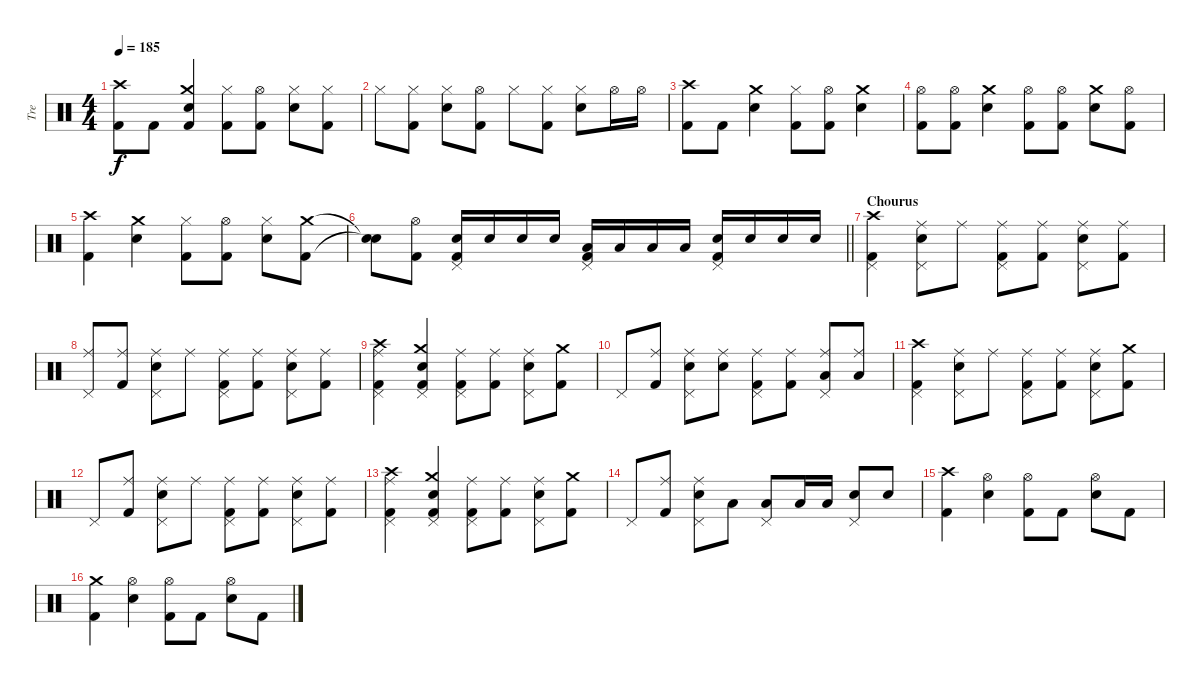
\track ("Tre" "Tre") {instrument percussion}
\staff {score}
\articulation defaults
\ts (4 4)
\tempo 185
\clef neutral
\ks c
("Crash high (hit)" "Kick (hit) 2").8{dy f} "Kick (hit) 2".8 ("Crash medium (hit)" "Snare (hit) 2" "Kick (hit) 2").4 ("Hi-Hat (closed)" "Kick (hit) 2").8 ("Hi-Hat (open)" "Kick (hit) 2").8 ("Hi-Hat (closed)" "Snare (hit) 2").8 ("Hi-Hat (closed)" "Kick (hit) 2").8 |
"Hi-Hat (closed)".8 ("Hi-Hat (closed)" "Kick (hit) 2").8 ("Hi-Hat (closed)" "Snare (hit) 2").8 ("Hi-Hat (open)" "Kick (hit) 2").8 "Hi-Hat (closed)".8 ("Hi-Hat (closed)" "Kick (hit) 2").8 ("Hi-Hat (closed)" "Snare (hit) 2").8 "Hi-Hat (open)".16 "Hi-Hat (open)".16 |
("Crash high (hit)" "Kick (hit) 2").8 "Kick (hit) 2".8 ("Crash medium (hit)" "Snare (hit) 2").4 ("Hi-Hat (closed)" "Kick (hit) 2").8 ("Hi-Hat (open)" "Kick (hit) 2").8 ("Crash medium (hit)" "Snare (hit) 2").4 |
("Hi-Hat (open)" "Kick (hit) 2").8 ("Hi-Hat (open)" "Kick (hit) 2").8 ("Crash medium (hit)" "Snare (hit) 2").4 ("Hi-Hat (open)" "Kick (hit) 2").8 ("Hi-Hat (open)" "Kick (hit) 2").8 ("Crash medium (hit)" "Snare (hit) 2").8 ("Hi-Hat (open)" "Kick (hit) 2").8 |
("Crash high (hit)" "Kick (hit) 2").4 ("Crash medium (hit)" "Snare (hit) 2").4 ("Hi-Hat (closed)" "Kick (hit) 2").8 ("Hi-Hat (open)" "Kick (hit) 2").8 ("Hi-Hat (closed)" "Snare (hit) 2").8 ("Crash medium (hit)" "Kick (hit) 2").8 |
\barLineRight lightlight
("Snare (hit)"{t} "Snare (hit)"{t}).8 ("Hi-Hat (open)" "Kick (hit) 2").8 ("Snare (hit) 2" "Pedal Hi-Hat (hit)" "Kick (hit) 2").16 "Snare (hit) 2".16 "Snare (hit) 2".16 "Snare (hit) 2".16 ("Low Tom (hit)" "Pedal Hi-Hat (hit)" "Kick (hit) 2").16 "Low Tom (hit)".16 "Low Tom (hit)".16 "Low Tom (hit)".16 ("Snare (hit) 2" "Pedal Hi-Hat (hit)" "Kick (hit) 2").16 "Snare (hit) 2".16 "Snare (hit) 2".16 "Snare (hit) 2".16 |
\section ("" "Chourus")
("Crash high (hit)" "Pedal Hi-Hat (hit)" "Kick (hit) 2").4 ("Ride (middle)" "Snare (hit) 2" "Pedal Hi-Hat (hit)").8 "Ride (middle)".8 ("Ride (middle)" "Pedal Hi-Hat (hit)" "Kick (hit) 2").8 ("Ride (middle)" "Kick (hit) 2").8 ("Ride (middle)" "Snare (hit) 2" "Pedal Hi-Hat (hit)").8 ("Ride (middle)" "Kick (hit) 2").8 |
("Ride (middle)" "Pedal Hi-Hat (hit)").8 ("Ride (middle)" "Kick (hit) 2").8 ("Ride (middle)" "Snare (hit) 2" "Pedal Hi-Hat (hit)").8 "Ride (middle)".8 ("Ride (middle)" "Pedal Hi-Hat (hit)" "Kick (hit) 2").8 ("Ride (middle)" "Kick (hit) 2").8 ("Ride (middle)" "Snare (hit) 2" "Pedal Hi-Hat (hit)").8 ("Ride (middle)" "Kick (hit) 2").8 |
("Crash high (hit)" "Ride (middle)" "Pedal Hi-Hat (hit)" "Kick (hit) 2").4 ("Crash medium (hit)" "Snare (hit) 2" "Pedal Hi-Hat (hit)" "Kick (hit) 2").4 ("Ride (middle)" "Pedal Hi-Hat (hit)" "Kick (hit) 2").8 ("Ride (middle)" "Kick (hit) 2").8 ("Ride (middle)" "Snare (hit) 2" "Pedal Hi-Hat (hit)").8 ("Crash medium (hit)" "Kick (hit) 2").8 |
"Pedal Hi-Hat (hit)".8 ("Ride (middle)" "Kick (hit) 2").8 ("Ride (middle)" "Snare (hit) 2" "Pedal Hi-Hat (hit)").8 ("Ride (middle)" "Snare (hit) 2").8 ("Ride (middle)" "Pedal Hi-Hat (hit)" "Kick (hit) 2").8 ("Ride (middle)" "Kick (hit) 2").8 ("Ride (middle)" "Low Tom (hit)" "Pedal Hi-Hat (hit)").8 ("Ride (middle)" "Low Tom (hit)").8 |
("Crash high (hit)" "Pedal Hi-Hat (hit)" "Kick (hit) 2").4 ("Ride (middle)" "Snare (hit) 2" "Pedal Hi-Hat (hit)").8 "Ride (middle)".8 ("Ride (middle)" "Pedal Hi-Hat (hit)" "Kick (hit) 2").8 ("Ride (middle)" "Kick (hit) 2").8 ("Ride (middle)" "Snare (hit) 2" "Pedal Hi-Hat (hit)").8 ("Crash medium (hit)" "Kick (hit) 2").8 |
"Pedal Hi-Hat (hit)".8 ("Ride (middle)" "Kick (hit) 2").8 ("Ride (middle)" "Snare (hit) 2" "Pedal Hi-Hat (hit)").8 "Ride (middle)".8 ("Ride (middle)" "Pedal Hi-Hat (hit)" "Kick (hit) 2").8 ("Ride (middle)" "Kick (hit) 2").8 ("Ride (middle)" "Snare (hit) 2" "Pedal Hi-Hat (hit)").8 ("Ride (middle)" "Kick (hit) 2").8 |
("Crash high (hit)" "Ride (middle)" "Pedal Hi-Hat (hit)" "Kick (hit) 2").4 ("Crash medium (hit)" "Snare (hit) 2" "Pedal Hi-Hat (hit)" "Kick (hit) 2").4 ("Ride (middle)" "Pedal Hi-Hat (hit)" "Kick (hit) 2").8 ("Ride (middle)" "Kick (hit) 2").8 ("Ride (middle)" "Snare (hit) 2" "Pedal Hi-Hat (hit)").8 ("Crash medium (hit)" "Kick (hit) 2").8 |
"Pedal Hi-Hat (hit)".8 ("Ride (middle)" "Kick (hit) 2").8 ("Ride (middle)" "Snare (hit) 2" "Pedal Hi-Hat (hit)").8 "Low Tom (hit)".8 ("Low Tom (hit)" "Pedal Hi-Hat (hit)").8 "Low Floor Tom (hit)".16 "Low Floor Tom (hit)".16 ("Snare (hit) 2" "Pedal Hi-Hat (hit)").8 "Snare (hit) 2".8 |
("Crash high (hit)" "Kick (hit) 2").4 ("Hi-Hat (open)" "Snare (hit) 2").4 ("Hi-Hat (open)" "Kick (hit) 2").8 "Kick (hit) 2".8 ("Hi-Hat (open)" "Snare (hit) 2").8 "Kick (hit) 2".8 |
("Crash medium (hit)" "Kick (hit) 2").4 ("Hi-Hat (open)" "Snare (hit) 2").4 ("Hi-Hat (open)" "Kick (hit) 2").8 "Kick (hit) 2".8 ("Hi-Hat (open)" "Snare (hit) 2").8 "Kick (hit) 2".8
